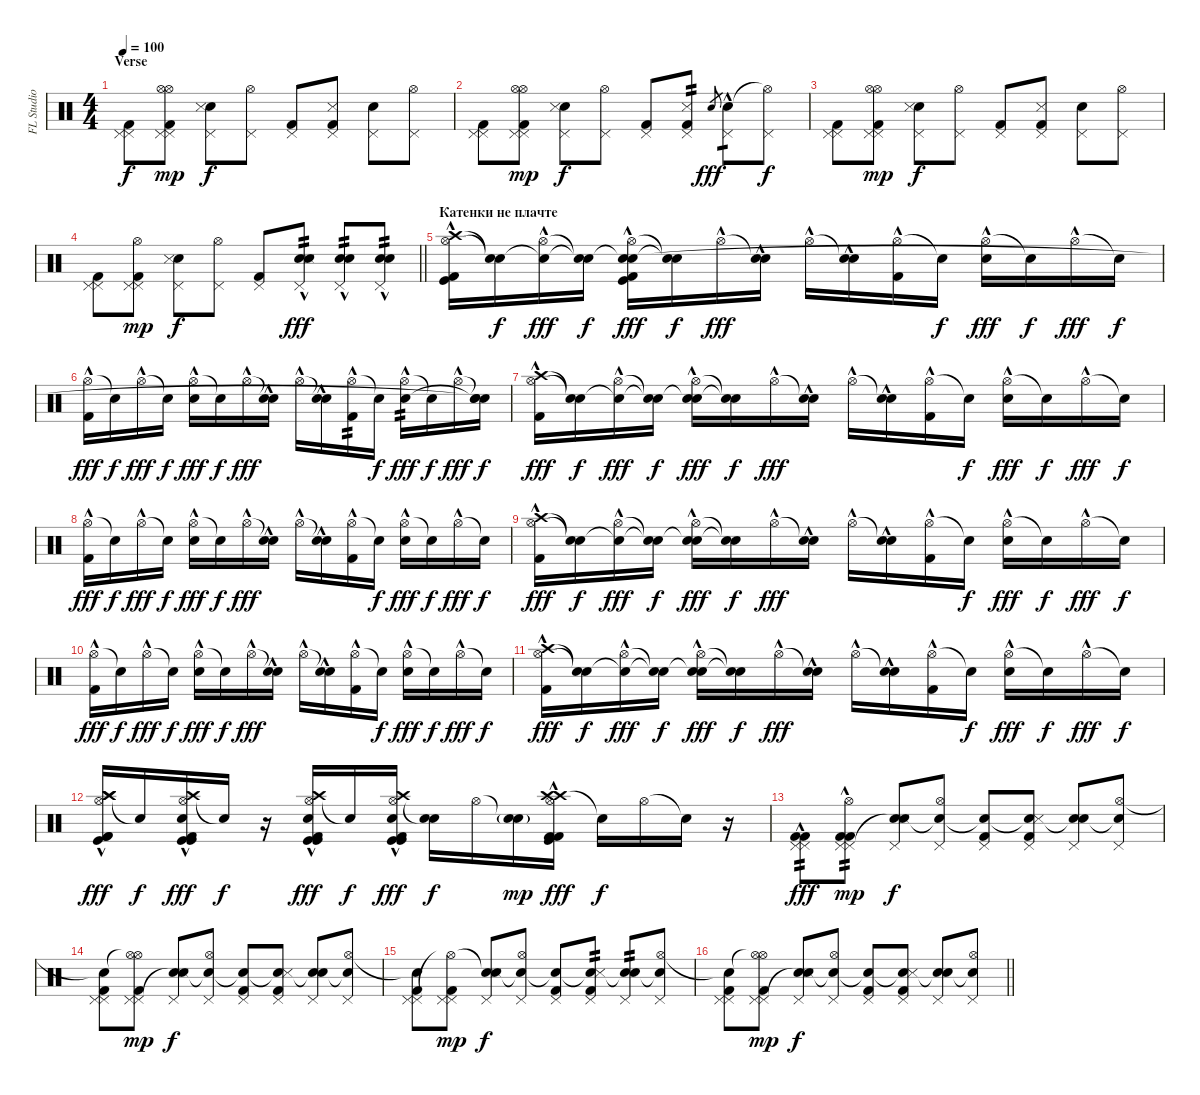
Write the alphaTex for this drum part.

\track ("FL Studio" "FL Studio") {instrument percussion}
\staff {score}
\articulation defaults
\ts (4 4)
\section ("" "Verse")
\tempo 100
\clef neutral
\ks c
("Pedal Hi-Hat (hit)" "Pedal Hi-Hat (hit)" "Kick (hit) 2").8{dy f} ("Hi-Hat (open)" "Pedal Hi-Hat (hit)" "Hi-Hat (open)" "Pedal Hi-Hat (hit)" "Kick (hit) 2").8{dy mp} ("Pedal Hi-Hat (hit)" "Electric Snare (hit)" "Metronome (hit)").8{dy f} ("Pedal Hi-Hat (hit)" "Hi-Hat (open)").8 ("Pedal Hi-Hat (hit)" "Kick (hit) 2").8 ("Pedal Hi-Hat (hit)" "Kick (hit) 2" "Metronome (hit)").8 ("Pedal Hi-Hat (hit)" "Electric Snare (hit)").8 ("Pedal Hi-Hat (hit)" "Hi-Hat (open)").8 |
("Pedal Hi-Hat (hit)" "Pedal Hi-Hat (hit)" "Kick (hit) 2").8 ("Hi-Hat (open)" "Pedal Hi-Hat (hit)" "Hi-Hat (open)" "Pedal Hi-Hat (hit)" "Kick (hit) 2").8{dy mp} ("Pedal Hi-Hat (hit)" "Electric Snare (hit)" "Metronome (hit)").8{dy f} ("Pedal Hi-Hat (hit)" "Hi-Hat (open)").8 ("Pedal Hi-Hat (hit)" "Kick (hit) 2").8 ("Pedal Hi-Hat (hit)" "Kick (hit) 2" "Metronome (hit)").8{tp 2} "Electric Snare (hit)".8{gr dy fff} ("Pedal Hi-Hat (hit)" "Electric Snare (hit)"{hac}).8{tp 1} ("Pedal Hi-Hat (hit)" "Hi-Hat (open)"{t}).8{dy f} |
("Pedal Hi-Hat (hit)" "Pedal Hi-Hat (hit)" "Kick (hit) 2").8 ("Hi-Hat (open)" "Pedal Hi-Hat (hit)" "Hi-Hat (open)" "Pedal Hi-Hat (hit)" "Kick (hit) 2").8{dy mp} ("Pedal Hi-Hat (hit)" "Electric Snare (hit)" "Metronome (hit)").8{dy f} ("Pedal Hi-Hat (hit)" "Hi-Hat (open)").8 ("Pedal Hi-Hat (hit)" "Kick (hit) 2").8 ("Pedal Hi-Hat (hit)" "Kick (hit) 2" "Metronome (hit)").8 ("Pedal Hi-Hat (hit)" "Electric Snare (hit)").8 ("Pedal Hi-Hat (hit)" "Hi-Hat (open)").8 |
\barLineRight lightlight
("Pedal Hi-Hat (hit)" "Pedal Hi-Hat (hit)" "Kick (hit) 2").8 ("Pedal Hi-Hat (hit)" "Hi-Hat (open)" "Pedal Hi-Hat (hit)" "Kick (hit) 2").8{dy mp} ("Pedal Hi-Hat (hit)" "Electric Snare (hit)" "Metronome (hit)").8{dy f} ("Pedal Hi-Hat (hit)" "Hi-Hat (open)").8 ("Pedal Hi-Hat (hit)" "Kick (hit) 2").8 ("Pedal Hi-Hat (hit)" "Electric Snare (hit)"{hac} "Snare (hit) 2"{hac} "Metronome (hit)").8{tp 2 dy fff} ("Pedal Hi-Hat (hit)" "Electric Snare (hit)"{hac} "Snare (hit) 2"{hac}).8{tp 2} ("Pedal Hi-Hat (hit)" "Electric Snare (hit)"{hac} "Snare (hit) 2"{hac}).8{tp 2} |
\section ("" "Катенки не плачте")
("Crash high (hit)"{hac} "Hi-Hat (open)"{hac} "Kick (hit)"{hac} "Kick (hit) 2"{hac}).16 ("Snare (hit)"{t} "Snare (hit)"{t}).16{dy f} ("Snare (hit)"{t} "Hi-Hat (open)"{hac}).16{dy fff} ("Snare (hit)"{t} "Snare (hit)"{t}).16{dy f} ("Snare (hit)"{t} "Hi-Hat (open)"{hac} "Electric Snare (hit)"{hac} "Kick (hit)"{hac} "Kick (hit) 2"{hac}).16{dy fff} ("Snare (hit)"{t} "Snare (hit)"{t}).16{dy f} "Hi-Hat (open)"{hac}.16{dy fff} ("Snare (hit)"{t} "Electric Snare (hit)"{hac}).16 "Hi-Hat (open)"{hac}.16 ("Snare (hit)"{t} "Electric Snare (hit)"{hac}).16 ("Hi-Hat (open)"{hac} "Kick (hit) 2"{hac}).16 "Snare (hit)"{t}.16{dy f} ("Hi-Hat (open)"{hac} "Electric Snare (hit)"{hac}).16{dy fff} "Snare (hit)"{t}.16{dy f} "Hi-Hat (open)"{hac}.16{dy fff} "Snare (hit)"{t}.16{dy f} |
("Hi-Hat (open)"{hac} "Kick (hit) 2"{hac}).16{dy fff} "Snare (hit)"{t}.16{dy f} "Hi-Hat (open)"{hac}.16{dy fff} "Snare (hit)"{t}.16{dy f} ("Hi-Hat (open)"{hac} "Electric Snare (hit)"{hac}).16{dy fff} "Snare (hit)"{t}.16{dy f} "Hi-Hat (open)"{hac}.16{dy fff} ("Snare (hit)"{t} "Electric Snare (hit)"{hac}).16 "Hi-Hat (open)"{hac}.16 ("Snare (hit)"{t} "Electric Snare (hit)"{hac}).16 ("Hi-Hat (open)"{hac} "Kick (hit) 2"{hac}).16{tp 2} "Snare (hit)"{t}.16{dy f} ("Hi-Hat (open)"{hac} "Electric Snare (hit)"{hac}).16{tp 2 dy fff} "Snare (hit)"{t}.16{dy f} "Hi-Hat (open)"{hac}.16{dy fff} ("Snare (hit)"{t} "Snare (hit)"{t} "Snare (hit)"{t}).16{dy f} |
("Crash high (hit)"{hac} "Hi-Hat (open)"{hac} "Kick (hit) 2"{hac}).16{dy fff} ("Snare (hit)"{t} "Snare (hit)"{t}).16{dy f} ("Snare (hit)"{t} "Hi-Hat (open)"{hac}).16{dy fff} ("Snare (hit)"{t} "Snare (hit)"{t}).16{dy f} ("Snare (hit)"{t} "Hi-Hat (open)"{hac} "Electric Snare (hit)"{hac}).16{dy fff} ("Snare (hit)"{t} "Snare (hit)"{t}).16{dy f} "Hi-Hat (open)"{hac}.16{dy fff} ("Snare (hit)"{t} "Electric Snare (hit)"{hac}).16 "Hi-Hat (open)"{hac}.16 ("Snare (hit)"{t} "Electric Snare (hit)"{hac}).16 ("Hi-Hat (open)"{hac} "Kick (hit) 2"{hac}).16 "Snare (hit)"{t}.16{dy f} ("Hi-Hat (open)"{hac} "Electric Snare (hit)"{hac}).16{dy fff} "Snare (hit)"{t}.16{dy f} "Hi-Hat (open)"{hac}.16{dy fff} "Snare (hit)"{t}.16{dy f} |
("Hi-Hat (open)"{hac} "Kick (hit) 2"{hac}).16{dy fff} "Snare (hit)"{t}.16{dy f} "Hi-Hat (open)"{hac}.16{dy fff} "Snare (hit)"{t}.16{dy f} ("Hi-Hat (open)"{hac} "Electric Snare (hit)"{hac}).16{dy fff} "Snare (hit)"{t}.16{dy f} "Hi-Hat (open)"{hac}.16{dy fff} ("Snare (hit)"{t} "Electric Snare (hit)"{hac}).16 "Hi-Hat (open)"{hac}.16 ("Snare (hit)"{t} "Electric Snare (hit)"{hac}).16 ("Hi-Hat (open)"{hac} "Kick (hit) 2"{hac}).16 "Snare (hit)"{t}.16{dy f} ("Hi-Hat (open)"{hac} "Electric Snare (hit)"{hac}).16{dy fff} "Snare (hit)"{t}.16{dy f} "Hi-Hat (open)"{hac}.16{dy fff} "Snare (hit)"{t}.16{dy f} |
("Crash high (hit)"{hac} "Hi-Hat (open)"{hac} "Kick (hit) 2"{hac}).16{dy fff} ("Snare (hit)"{t} "Snare (hit)"{t}).16{dy f} ("Snare (hit)"{t} "Hi-Hat (open)"{hac}).16{dy fff} ("Snare (hit)"{t} "Snare (hit)"{t}).16{dy f} ("Snare (hit)"{t} "Hi-Hat (open)"{hac} "Electric Snare (hit)"{hac}).16{dy fff} ("Snare (hit)"{t} "Snare (hit)"{t}).16{dy f} "Hi-Hat (open)"{hac}.16{dy fff} ("Snare (hit)"{t} "Electric Snare (hit)"{hac}).16 "Hi-Hat (open)"{hac}.16 ("Snare (hit)"{t} "Electric Snare (hit)"{hac}).16 ("Hi-Hat (open)"{hac} "Kick (hit) 2"{hac}).16 "Snare (hit)"{t}.16{dy f} ("Hi-Hat (open)"{hac} "Electric Snare (hit)"{hac}).16{dy fff} "Snare (hit)"{t}.16{dy f} "Hi-Hat (open)"{hac}.16{dy fff} "Snare (hit)"{t}.16{dy f} |
("Hi-Hat (open)"{hac} "Kick (hit) 2"{hac}).16{dy fff} "Snare (hit)"{t}.16{dy f} "Hi-Hat (open)"{hac}.16{dy fff} "Snare (hit)"{t}.16{dy f} ("Hi-Hat (open)"{hac} "Electric Snare (hit)"{hac}).16{dy fff} "Snare (hit)"{t}.16{dy f} "Hi-Hat (open)"{hac}.16{dy fff} ("Snare (hit)"{t} "Electric Snare (hit)"{hac}).16 "Hi-Hat (open)"{hac}.16 ("Snare (hit)"{t} "Electric Snare (hit)"{hac}).16 ("Hi-Hat (open)"{hac} "Kick (hit) 2"{hac}).16 "Snare (hit)"{t}.16{dy f} ("Hi-Hat (open)"{hac} "Electric Snare (hit)"{hac}).16{dy fff} "Snare (hit)"{t}.16{dy f} "Hi-Hat (open)"{hac}.16{dy fff} "Snare (hit)"{t}.16{dy f} |
("Crash high (hit)"{hac} "Hi-Hat (open)"{hac} "Kick (hit) 2"{hac}).16{dy fff} ("Snare (hit)"{t} "Snare (hit)"{t}).16{dy f} ("Snare (hit)"{t} "Hi-Hat (open)"{hac}).16{dy fff} ("Snare (hit)"{t} "Snare (hit)"{t}).16{dy f} ("Snare (hit)"{t} "Hi-Hat (open)"{hac} "Electric Snare (hit)"{hac}).16{dy fff} ("Snare (hit)"{t} "Snare (hit)"{t}).16{dy f} "Hi-Hat (open)"{hac}.16{dy fff} ("Snare (hit)"{t} "Electric Snare (hit)"{hac}).16 "Hi-Hat (open)"{hac}.16 ("Snare (hit)"{t} "Electric Snare (hit)"{hac}).16 ("Hi-Hat (open)"{hac} "Kick (hit) 2"{hac}).16 "Snare (hit)"{t}.16{dy f} ("Hi-Hat (open)"{hac} "Electric Snare (hit)"{hac}).16{dy fff} "Snare (hit)"{t}.16{dy f} "Hi-Hat (open)"{hac}.16{dy fff} "Snare (hit)"{t}.16{dy f} |
("Crash high (hit)"{hac} "Hi-Hat (open)"{hac} "Crash high (hit)"{hac} "Kick (hit) 2"{hac} "Kick (hit)"{hac} "Kick (hit) 2"{hac}).16{dy fff} "Snare (hit)"{t}.16{dy f} ("Crash high (hit)"{hac} "Hi-Hat (open)"{hac} "Kick (hit)"{hac} "Electric Snare (hit)"{hac} "Kick (hit) 2"{hac} "Kick (hit)"{hac}).16{dy fff} "Snare (hit)"{t}.16{dy f} r.16 ("Crash high (hit)"{hac} "Hi-Hat (open)"{hac} "Kick (hit)"{hac} "Electric Snare (hit)"{hac} "Kick (hit) 2"{hac} "Kick (hit)"{hac}).16{dy fff} "Snare (hit)"{t}.16{dy f} ("Crash high (hit)"{hac} "Hi-Hat (open)"{hac} "Kick (hit)"{hac} "Electric Snare (hit)"{hac} "Kick (hit) 2"{hac} "Kick (hit)"{hac}).16{dy fff} ("Snare (hit)"{t} "Electric Snare (hit)").16{dy f} "Hi-Hat (open)".16 ("Snare (hit)"{t} "Electric Snare (hit)"{g}).16{dy mp} ("Crash high (hit)"{hac} "Hi-Hat (open)"{hac} "Crash high (hit)"{hac} "Kick (hit) 2"{hac} "Kick (hit)"{hac} "Kick (hit) 2"{hac}).16{dy fff} "Snare (hit)"{t}.16{dy f} "Hi-Hat (open)".16 "Snare (hit)"{t}.16 r.16 |
("Pedal Hi-Hat (hit)" "Pedal Hi-Hat (hit)" "Kick (hit) 2"{hac} "Kick (hit) 2").8{tp 2 dy fff} ("Hi-Hat (open)" "Pedal Hi-Hat (hit)" "Kick (hit) 2"{hac} "Pedal Hi-Hat (hit)" "Kick (hit) 2").8{tp 2 dy mp} ("Pedal Hi-Hat (hit)" "Snare (hit)"{t} "Electric Snare (hit)" "Metronome (hit)").8{dy f} ("Pedal Hi-Hat (hit)" "Snare (hit)"{t} "Hi-Hat (open)").8 ("Pedal Hi-Hat (hit)" "Snare (hit)"{t} "Kick (hit) 2").8 ("Pedal Hi-Hat (hit)" "Snare (hit)"{t} "Kick (hit) 2" "Metronome (hit)").8 ("Pedal Hi-Hat (hit)" "Snare (hit)"{t} "Electric Snare (hit)").8 ("Pedal Hi-Hat (hit)" "Snare (hit)"{t} "Hi-Hat (open)").8 |
("Pedal Hi-Hat (hit)" "Pedal Hi-Hat (hit)" "Snare (hit)"{t} "Kick (hit) 2").8 ("Hi-Hat (open)" "Pedal Hi-Hat (hit)" "Hi-Hat (open)"{t} "Pedal Hi-Hat (hit)" "Kick (hit) 2").8{dy mp} ("Pedal Hi-Hat (hit)" "Snare (hit)"{t} "Electric Snare (hit)" "Metronome (hit)").8{dy f} ("Pedal Hi-Hat (hit)" "Snare (hit)"{t} "Hi-Hat (open)").8 ("Pedal Hi-Hat (hit)" "Snare (hit)"{t} "Kick (hit) 2").8 ("Pedal Hi-Hat (hit)" "Snare (hit)"{t} "Kick (hit) 2" "Metronome (hit)").8 ("Pedal Hi-Hat (hit)" "Snare (hit)"{t} "Electric Snare (hit)").8 ("Pedal Hi-Hat (hit)" "Snare (hit)"{t} "Hi-Hat (open)").8 |
("Pedal Hi-Hat (hit)" "Pedal Hi-Hat (hit)" "Snare (hit)"{t} "Kick (hit) 2").8 ("Pedal Hi-Hat (hit)" "Hi-Hat (open)"{t} "Pedal Hi-Hat (hit)" "Kick (hit) 2").8{dy mp} ("Pedal Hi-Hat (hit)" "Snare (hit)"{t} "Electric Snare (hit)" "Metronome (hit)").8{dy f} ("Pedal Hi-Hat (hit)" "Snare (hit)"{t} "Hi-Hat (open)").8 ("Pedal Hi-Hat (hit)" "Snare (hit)"{t} "Kick (hit) 2").8 ("Pedal Hi-Hat (hit)" "Snare (hit)"{t} "Kick (hit) 2" "Metronome (hit)").8{tp 2} ("Pedal Hi-Hat (hit)" "Snare (hit)"{t} "Electric Snare (hit)").8{tp 2} ("Pedal Hi-Hat (hit)" "Snare (hit)"{t} "Hi-Hat (open)").8 |
\barLineRight lightlight
("Pedal Hi-Hat (hit)" "Pedal Hi-Hat (hit)" "Snare (hit)"{t} "Kick (hit) 2").8 ("Hi-Hat (open)" "Pedal Hi-Hat (hit)" "Hi-Hat (open)"{t} "Pedal Hi-Hat (hit)" "Kick (hit) 2").8{dy mp} ("Pedal Hi-Hat (hit)" "Snare (hit)"{t} "Electric Snare (hit)" "Metronome (hit)").8{dy f} ("Pedal Hi-Hat (hit)" "Snare (hit)"{t} "Hi-Hat (open)").8 ("Pedal Hi-Hat (hit)" "Snare (hit)"{t} "Kick (hit) 2").8 ("Pedal Hi-Hat (hit)" "Snare (hit)"{t} "Kick (hit) 2" "Metronome (hit)").8 ("Pedal Hi-Hat (hit)" "Snare (hit)"{t} "Electric Snare (hit)").8 ("Pedal Hi-Hat (hit)" "Snare (hit)"{t} "Hi-Hat (open)").8
